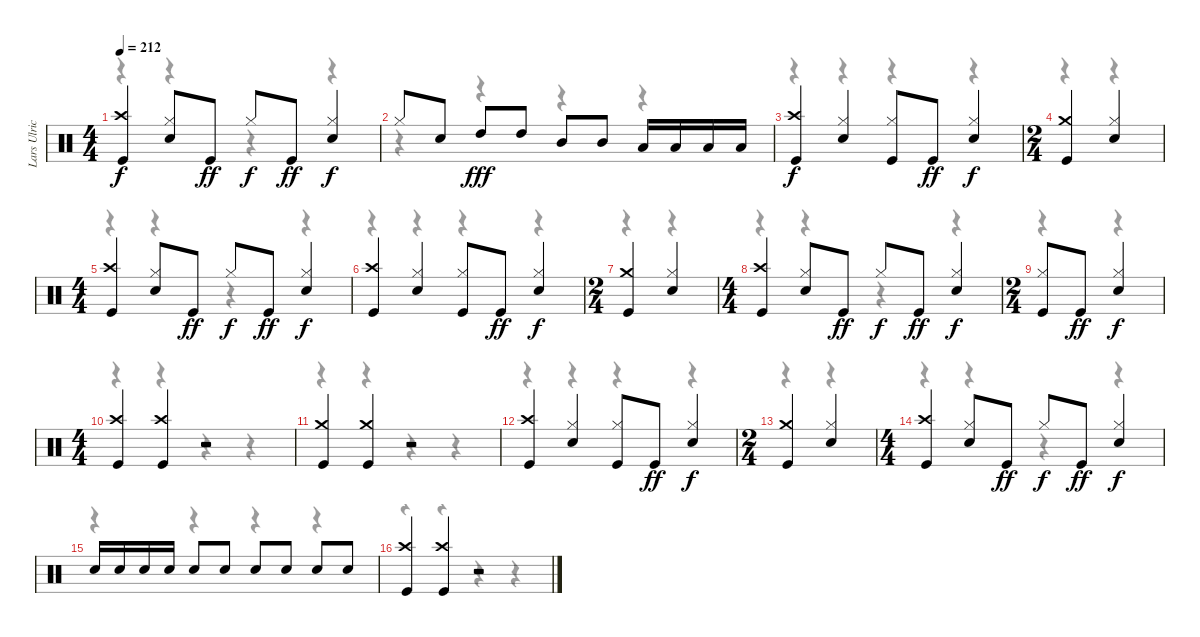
\track ("Lars Ulrich" "Lars Ulric") {instrument percussion}
\staff {score}
\articulation defaults
\voice
\ts (4 4)
\tempo 212
\clef neutral
\ks c
("Crash high (hit)" "Kick (hit)").4{dy f} ("Hi-Hat (closed)" "Snare (hit) 2").8 "Kick (hit)".8{dy ff} "Hi-Hat (closed)".8{dy f} "Kick (hit)".8{dy ff} ("Hi-Hat (closed)" "Snare (hit) 2").4{dy f} |
"Hi-Hat (closed)".8 "Snare (hit) 2".8 "High Tom (hit)".8{dy fff} "High Tom (hit)".8 "Mid Tom (hit)".8 "Mid Tom (hit)".8 "Low Tom (hit)".16 "Low Tom (hit)".16 "Low Tom (hit)".16 "Low Tom (hit)".16 |
("Crash high (hit)" "Kick (hit)").4{dy f} ("Hi-Hat (closed)" "Snare (hit) 2").4 ("Hi-Hat (closed)" "Kick (hit)").8 "Kick (hit)".8{dy ff} ("Hi-Hat (closed)" "Snare (hit) 2").4{dy f} |
\ts (2 4)
("Crash medium (hit)" "Kick (hit)").4 ("Hi-Hat (closed)" "Snare (hit) 2").4 |
\ts (4 4)
("Crash high (hit)" "Kick (hit)").4 ("Hi-Hat (closed)" "Snare (hit) 2").8 "Kick (hit)".8{dy ff} "Hi-Hat (closed)".8{dy f} "Kick (hit)".8{dy ff} ("Hi-Hat (closed)" "Snare (hit) 2").4{dy f} |
("Crash high (hit)" "Kick (hit)").4 ("Hi-Hat (closed)" "Snare (hit) 2").4 ("Hi-Hat (closed)" "Kick (hit)").8 "Kick (hit)".8{dy ff} ("Hi-Hat (closed)" "Snare (hit) 2").4{dy f} |
\ts (2 4)
("Crash medium (hit)" "Kick (hit)").4 ("Hi-Hat (closed)" "Snare (hit) 2").4 |
\ts (4 4)
("Crash high (hit)" "Kick (hit)").4 ("Hi-Hat (closed)" "Snare (hit) 2").8 "Kick (hit)".8{dy ff} "Hi-Hat (closed)".8{dy f} "Kick (hit)".8{dy ff} ("Hi-Hat (closed)" "Snare (hit) 2").4{dy f} |
\ts (2 4)
("Hi-Hat (closed)" "Kick (hit)").8 "Kick (hit)".8{dy ff} ("Hi-Hat (closed)" "Snare (hit) 2").4{dy f} |
\ts (4 4)
("Crash high (hit)" "Kick (hit)").4 ("Crash high (hit)" "Kick (hit)").4 r.2 |
("Crash medium (hit)" "Kick (hit)").4 ("Crash medium (hit)" "Kick (hit)").4 r.2 |
("Crash high (hit)" "Kick (hit)").4 ("Hi-Hat (closed)" "Snare (hit) 2").4 ("Hi-Hat (closed)" "Kick (hit)").8 "Kick (hit)".8{dy ff} ("Hi-Hat (closed)" "Snare (hit) 2").4{dy f} |
\ts (2 4)
("Crash medium (hit)" "Kick (hit)").4 ("Hi-Hat (closed)" "Snare (hit) 2").4 |
\ts (4 4)
("Crash high (hit)" "Kick (hit)").4 ("Hi-Hat (closed)" "Snare (hit) 2").8 "Kick (hit)".8{dy ff} "Hi-Hat (closed)".8{dy f} "Kick (hit)".8{dy ff} ("Hi-Hat (closed)" "Snare (hit) 2").4{dy f} |
"Snare (hit) 2".16 "Snare (hit) 2".16 "Snare (hit) 2".16 "Snare (hit) 2".16 "Snare (hit) 2".8 "Snare (hit) 2".8 "Snare (hit) 2".8 "Snare (hit) 2".8 "Snare (hit) 2".8 "Snare (hit) 2".8 |
("Crash high (hit)" "Kick (hit)").4 ("Crash high (hit)" "Kick (hit)").4 r.2
\voice
\clef neutral
\ottava regular
\simile none
\ks c
r.4{dy f} r.4 r.4 r.4 |
r.4 r.4 r.4 r.4 |
r.4 r.4 r.4 r.4 |
r.4 r.4 |
r.4 r.4 r.4 r.4 |
r.4 r.4 r.4 r.4 |
r.4 r.4 |
r.4 r.4 r.4 r.4 |
r.4 r.4 |
r.4 r.4 r.4 r.4 |
r.4 r.4 r.4 r.4 |
r.4 r.4 r.4 r.4 |
r.4 r.4 |
r.4 r.4 r.4 r.4 |
r.4 r.4 r.4 r.4 |
r.4 r.4 r.4 r.4
